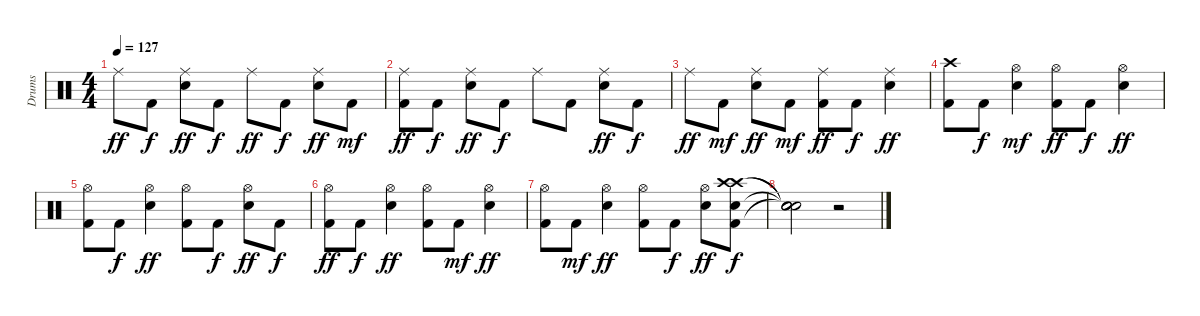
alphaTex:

\track ("Drums" "Drums") {instrument percussion}
\staff {score}
\articulation defaults
\ts (4 4)
\tempo 127
\clef neutral
\ks c "Ride (middle)".8{dy ff} "Kick (hit) 2".8{dy f}
("Electric Snare (hit)" "Ride (middle)").8{dy ff} "Kick (hit) 2".8{dy f} "Ride (middle)".8{dy ff} "Kick (hit) 2".8{dy f} ("Electric Snare (hit)" "Ride (middle)").8{dy ff} "Kick (hit) 2".8{dy mf} |
("Kick (hit) 2" "Ride (middle)").8{dy ff} "Kick (hit) 2".8{dy f} ("Electric Snare (hit)" "Ride (middle)").8{dy ff} "Kick (hit) 2".8{dy f} "Ride (middle)".8 "Kick (hit) 2".8 ("Electric Snare (hit)" "Ride (middle)").8{dy ff} "Kick (hit) 2".8{dy f} |
"Ride (middle)".8{dy ff} "Kick (hit) 2".8{dy mf} ("Electric Snare (hit)" "Ride (middle)").8{dy ff} "Kick (hit) 2".8{dy mf} ("Kick (hit) 2" "Ride (middle)").8{dy ff} "Kick (hit) 2".8{dy f} ("Electric Snare (hit)" "Ride (middle)").4{dy ff} |
("Kick (hit) 2" "Crash high (hit)").8 "Kick (hit) 2".8{dy f} ("Electric Snare (hit)" "Hi-Hat (open)").4{dy mf} ("Kick (hit) 2" "Hi-Hat (open)").8{dy ff} "Kick (hit) 2".8{dy f} ("Electric Snare (hit)" "Hi-Hat (open)").4{dy ff} |
("Kick (hit) 2" "Hi-Hat (open)").8 "Kick (hit) 2".8{dy f} ("Electric Snare (hit)" "Hi-Hat (open)").4{dy ff} ("Kick (hit) 2" "Hi-Hat (open)").8 "Kick (hit) 2".8{dy f} ("Electric Snare (hit)" "Hi-Hat (open)").8{dy ff} "Kick (hit) 2".8{dy f} |
("Kick (hit) 2" "Hi-Hat (open)").8{dy ff} "Kick (hit) 2".8{dy f} ("Electric Snare (hit)" "Hi-Hat (open)").4{dy ff} ("Kick (hit) 2" "Hi-Hat (open)").8 "Kick (hit) 2".8{dy mf} ("Electric Snare (hit)" "Hi-Hat (open)").4{dy ff} |
("Hi-Hat (open)" "Kick (hit) 2").8 "Kick (hit) 2".8{dy mf} ("Electric Snare (hit)" "Hi-Hat (open)").4{dy ff} ("Hi-Hat (open)" "Kick (hit) 2").8 "Kick (hit) 2".8{dy f} ("Electric Snare (hit)" "Hi-Hat (open)").8{dy ff} ("Kick (hit) 2" "Crash high (hit)" "Crash high (hit)" "Electric Snare (hit)").8{dy f} |
("Snare (hit)"{t} "Snare (hit)"{t} "Snare (hit)"{t} "Snare (hit)"{t}).2 r.2
